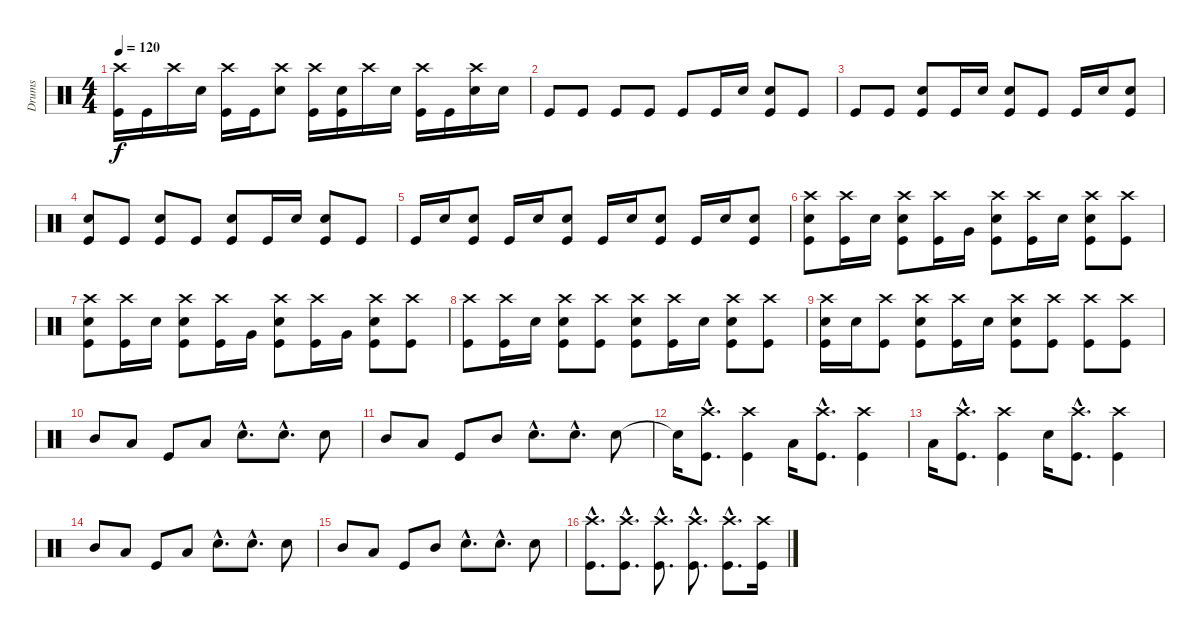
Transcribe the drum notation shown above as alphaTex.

\track ("Drums " "Drums ") {instrument percussion}
\staff {score}
\articulation defaults
\ts (4 4)
\tempo 120
\clef neutral
\ks c
("Crash high (hit)" "Kick (hit)").16{dy f} "Kick (hit)".16 "Crash high (hit)".16 "Snare (hit) 2".16 ("Crash high (hit)" "Kick (hit)").16 "Kick (hit)".16 ("Crash high (hit)" "Snare (hit) 2").8 ("Crash high (hit)" "Kick (hit)").16 ("Snare (hit) 2" "Kick (hit)").16 "Crash high (hit)".16 "Snare (hit) 2".16 ("Crash high (hit)" "Kick (hit)").16 "Kick (hit)".16 ("Crash high (hit)" "Snare (hit) 2").16 "Snare (hit) 2".16 |
"Kick (hit)".8 "Kick (hit)".8 "Kick (hit)".8 "Kick (hit)".8 "Kick (hit)".8 "Kick (hit)".16 "Snare (hit) 2".16 ("Snare (hit) 2" "Kick (hit)").8 "Kick (hit)".8 |
"Kick (hit)".8 "Kick (hit)".8 ("Snare (hit) 2" "Kick (hit)").8 "Kick (hit)".16 "Snare (hit) 2".16 ("Snare (hit) 2" "Kick (hit)").8 "Kick (hit)".8 "Kick (hit)".16 "Snare (hit) 2".16 ("Snare (hit) 2" "Kick (hit)").8 |
("Snare (hit) 2" "Kick (hit)").8 "Kick (hit)".8 ("Snare (hit) 2" "Kick (hit)").8 "Kick (hit)".8 ("Snare (hit) 2" "Kick (hit)").8 "Kick (hit)".16 "Snare (hit) 2".16 ("Snare (hit) 2" "Kick (hit)").8 "Kick (hit)".8 |
"Kick (hit)".16 "Snare (hit) 2".16 ("Snare (hit) 2" "Kick (hit)").8 "Kick (hit)".16 "Snare (hit) 2".16 ("Snare (hit) 2" "Kick (hit)").8 "Kick (hit)".16 "Snare (hit) 2".16 ("Snare (hit) 2" "Kick (hit)").8 "Kick (hit)".16 "Snare (hit) 2".16 ("Snare (hit) 2" "Kick (hit)").8 |
("Crash high (hit)" "Snare (hit) 2" "Kick (hit)").8 ("Crash high (hit)" "Kick (hit)").16 "Snare (hit) 2".16 ("Crash high (hit)" "Snare (hit) 2" "Kick (hit)").8 ("Crash high (hit)" "Kick (hit)").16 "Very Low Tom (hit)".16 ("Crash high (hit)" "Snare (hit) 2" "Kick (hit)").8 ("Crash high (hit)" "Kick (hit)").16 "Snare (hit) 2".16 ("Crash high (hit)" "Snare (hit) 2" "Kick (hit)").8 ("Crash high (hit)" "Kick (hit)").8 |
("Crash high (hit)" "Snare (hit) 2" "Kick (hit)").8 ("Crash high (hit)" "Kick (hit)").16 "Snare (hit) 2".16 ("Crash high (hit)" "Snare (hit) 2" "Kick (hit)").8 ("Crash high (hit)" "Kick (hit)").16 "Very Low Tom (hit)".16 ("Crash high (hit)" "Snare (hit) 2" "Kick (hit)").8 ("Crash high (hit)" "Kick (hit)").16 "Very Low Tom (hit)".16 ("Crash high (hit)" "Snare (hit) 2" "Kick (hit)").8 ("Crash high (hit)" "Kick (hit)").8 |
("Crash high (hit)" "Kick (hit)").8 ("Crash high (hit)" "Kick (hit)").16 "Snare (hit) 2".16 ("Crash high (hit)" "Snare (hit) 2" "Kick (hit)").8 ("Crash high (hit)" "Kick (hit)").8 ("Crash high (hit)" "Snare (hit) 2" "Kick (hit)").8 ("Crash high (hit)" "Kick (hit)").16 "Snare (hit) 2".16 ("Crash high (hit)" "Snare (hit) 2" "Kick (hit)").8 ("Crash high (hit)" "Kick (hit)").8 |
("Crash high (hit)" "Snare (hit) 2" "Kick (hit)").16 "Snare (hit) 2".16 ("Crash high (hit)" "Kick (hit)").8 ("Crash high (hit)" "Snare (hit) 2" "Kick (hit)").8 ("Crash high (hit)" "Kick (hit)").16 "Snare (hit) 2".16 ("Crash high (hit)" "Snare (hit) 2" "Kick (hit)").8 ("Crash high (hit)" "Kick (hit)").8 ("Crash high (hit)" "Kick (hit)").8 ("Crash high (hit)" "Kick (hit)").8 |
"Mid Tom (hit)".8 "Low Floor Tom (hit)".8 "Kick (hit)".8 "Low Floor Tom (hit)".8 "Snare (hit) 2"{hac}.8{d} "Snare (hit) 2"{hac}.8{d} "Snare (hit) 2".8 |
"Mid Tom (hit)".8 "Low Floor Tom (hit)".8 "Kick (hit)".8 "Mid Tom (hit)".8 "Snare (hit) 2"{hac}.8{d} "Snare (hit) 2"{hac}.8{d} "Snare (hit) 2".8 |
"Snare (hit)"{t}.16 ("Crash high (hit)"{hac} "Kick (hit)"{hac}).8{d} ("Crash high (hit)" "Kick (hit)").4 "Low Floor Tom (hit)".16 ("Crash high (hit)"{hac} "Kick (hit)"{hac}).8{d} ("Crash high (hit)" "Kick (hit)").4 |
"Low Floor Tom (hit)".16 ("Crash high (hit)"{hac} "Kick (hit)"{hac}).8{d} ("Crash high (hit)" "Kick (hit)").4 "Snare (hit) 2".16 ("Crash high (hit)"{hac} "Kick (hit)"{hac}).8{d} ("Crash high (hit)" "Kick (hit)").4 |
"Mid Tom (hit)".8 "Low Floor Tom (hit)".8 "Kick (hit)".8 "Low Floor Tom (hit)".8 "Snare (hit) 2"{hac}.8{d} "Snare (hit) 2"{hac}.8{d} "Snare (hit) 2".8 |
"Mid Tom (hit)".8 "Low Floor Tom (hit)".8 "Kick (hit)".8 "Mid Tom (hit)".8 "Snare (hit) 2"{hac}.8{d} "Snare (hit) 2"{hac}.8{d} "Snare (hit) 2".8 |
("Crash high (hit)"{hac} "Kick (hit)"{hac}).8{d} ("Crash high (hit)"{hac} "Kick (hit)"{hac}).8{d} ("Crash high (hit)"{hac} "Kick (hit)"{hac}).8{d} ("Crash high (hit)"{hac} "Kick (hit)"{hac}).8{d} ("Crash high (hit)"{hac} "Kick (hit)"{hac}).8{d} ("Crash high (hit)" "Kick (hit)").16
